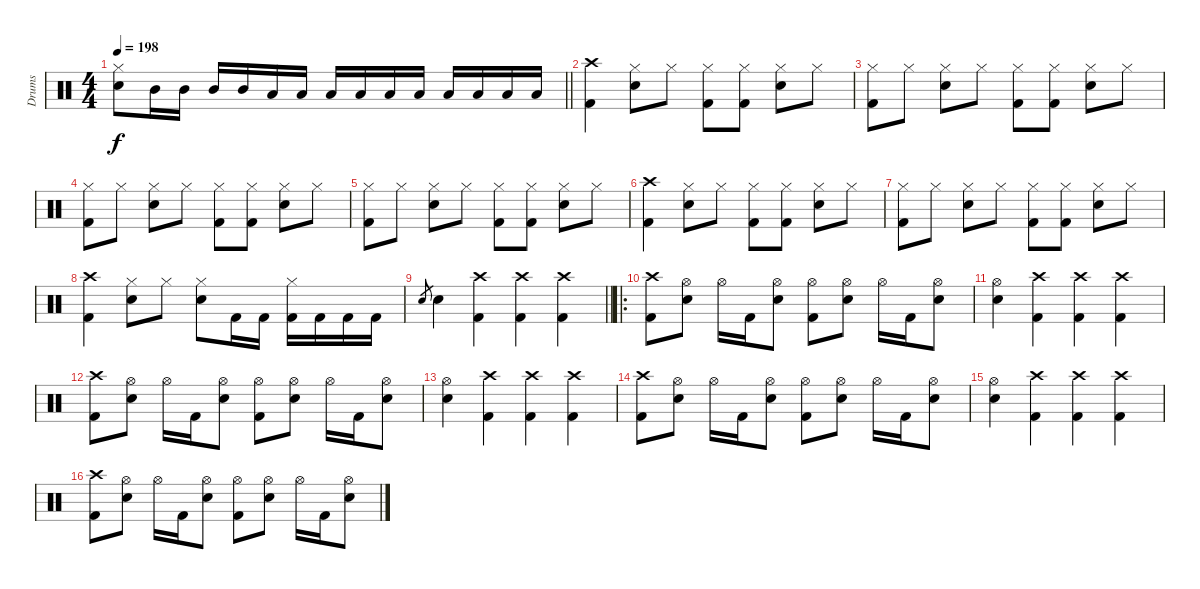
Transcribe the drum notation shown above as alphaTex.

\track ("Drums" "Drums") {instrument percussion}
\staff {score}
\articulation defaults
\ts (4 4)
\tempo 198
\clef neutral
\barLineRight lightlight
\ks c
("Hi-Hat (closed)" "Snare (hit) 2").8{dy f} "Mid Tom (hit)".16 "Mid Tom (hit)".16 "Mid Tom (hit)".16 "Mid Tom (hit)".16 "Low Tom (hit)".16 "Low Tom (hit)".16 "Low Tom (hit)".16 "Low Tom (hit)".16 "Low Tom (hit)".16 "Low Tom (hit)".16 "Low Floor Tom (hit)".16 "Low Floor Tom (hit)".16 "Low Floor Tom (hit)".16 "Low Floor Tom (hit)".16 |
("Crash high (hit)" "Kick (hit) 2").4 ("Hi-Hat (closed)" "Snare (hit) 2").8 "Hi-Hat (closed)".8 ("Hi-Hat (closed)" "Kick (hit) 2").8 ("Hi-Hat (closed)" "Kick (hit) 2").8 ("Hi-Hat (closed)" "Snare (hit) 2").8 "Hi-Hat (closed)".8 |
("Hi-Hat (closed)" "Kick (hit) 2").8 "Hi-Hat (closed)".8 ("Hi-Hat (closed)" "Snare (hit) 2").8 "Hi-Hat (closed)".8 ("Hi-Hat (closed)" "Kick (hit) 2").8 ("Hi-Hat (closed)" "Kick (hit) 2").8 ("Hi-Hat (closed)" "Snare (hit) 2").8 "Hi-Hat (closed)".8 |
("Hi-Hat (closed)" "Kick (hit) 2").8 "Hi-Hat (closed)".8 ("Hi-Hat (closed)" "Snare (hit) 2").8 "Hi-Hat (closed)".8 ("Hi-Hat (closed)" "Kick (hit) 2").8 ("Hi-Hat (closed)" "Kick (hit) 2").8 ("Hi-Hat (closed)" "Snare (hit) 2").8 "Hi-Hat (closed)".8 |
("Hi-Hat (closed)" "Kick (hit) 2").8 "Hi-Hat (closed)".8 ("Hi-Hat (closed)" "Snare (hit) 2").8 "Hi-Hat (closed)".8 ("Hi-Hat (closed)" "Kick (hit) 2").8 ("Hi-Hat (closed)" "Kick (hit) 2").8 ("Hi-Hat (closed)" "Snare (hit) 2").8 "Hi-Hat (closed)".8 |
("Crash high (hit)" "Kick (hit) 2").4 ("Hi-Hat (closed)" "Snare (hit) 2").8 "Hi-Hat (closed)".8 ("Hi-Hat (closed)" "Kick (hit) 2").8 ("Hi-Hat (closed)" "Kick (hit) 2").8 ("Hi-Hat (closed)" "Snare (hit) 2").8 "Hi-Hat (closed)".8 |
("Hi-Hat (closed)" "Kick (hit) 2").8 "Hi-Hat (closed)".8 ("Hi-Hat (closed)" "Snare (hit) 2").8 "Hi-Hat (closed)".8 ("Hi-Hat (closed)" "Kick (hit) 2").8 ("Hi-Hat (closed)" "Kick (hit) 2").8 ("Hi-Hat (closed)" "Snare (hit) 2").8 "Hi-Hat (closed)".8 |
("Crash high (hit)" "Kick (hit) 2").4 ("Hi-Hat (closed)" "Snare (hit) 2").8 "Hi-Hat (closed)".8 ("Hi-Hat (closed)" "Snare (hit) 2").8 "Kick (hit) 2".16 "Kick (hit) 2".16 ("Hi-Hat (closed)" "Kick (hit) 2").16 "Kick (hit) 2".16 "Kick (hit) 2".16 "Kick (hit) 2".16 |
\barLineRight lightlight "Snare (hit) 2".8{gr} "Snare (hit) 2".4
("Crash high (hit)" "Kick (hit) 2").4 ("Crash high (hit)" "Kick (hit) 2").4 ("Crash high (hit)" "Kick (hit) 2").4 |
\ro
("Crash high (hit)" "Kick (hit) 2").8 ("Hi-Hat (open)" "Snare (hit) 2").8 "Hi-Hat (open)".16 "Kick (hit) 2".16 ("Hi-Hat (open)" "Snare (hit) 2").8 ("Hi-Hat (open)" "Kick (hit) 2").8 ("Hi-Hat (open)" "Snare (hit) 2").8 "Hi-Hat (open)".16 "Kick (hit) 2".16 ("Hi-Hat (open)" "Snare (hit) 2").8 |
("Hi-Hat (open)" "Snare (hit) 2").4 ("Crash high (hit)" "Kick (hit) 2").4 ("Crash high (hit)" "Kick (hit) 2").4 ("Crash high (hit)" "Kick (hit) 2").4 |
("Crash high (hit)" "Kick (hit) 2").8 ("Hi-Hat (open)" "Snare (hit) 2").8 "Hi-Hat (open)".16 "Kick (hit) 2".16 ("Hi-Hat (open)" "Snare (hit) 2").8 ("Hi-Hat (open)" "Kick (hit) 2").8 ("Hi-Hat (open)" "Snare (hit) 2").8 "Hi-Hat (open)".16 "Kick (hit) 2".16 ("Hi-Hat (open)" "Snare (hit) 2").8 |
("Hi-Hat (open)" "Snare (hit) 2").4 ("Crash high (hit)" "Kick (hit) 2").4 ("Crash high (hit)" "Kick (hit) 2").4 ("Crash high (hit)" "Kick (hit) 2").4 |
("Crash high (hit)" "Kick (hit) 2").8 ("Hi-Hat (open)" "Snare (hit) 2").8 "Hi-Hat (open)".16 "Kick (hit) 2".16 ("Hi-Hat (open)" "Snare (hit) 2").8 ("Hi-Hat (open)" "Kick (hit) 2").8 ("Hi-Hat (open)" "Snare (hit) 2").8 "Hi-Hat (open)".16 "Kick (hit) 2".16 ("Hi-Hat (open)" "Snare (hit) 2").8 |
("Hi-Hat (open)" "Snare (hit) 2").4 ("Crash high (hit)" "Kick (hit) 2").4 ("Crash high (hit)" "Kick (hit) 2").4 ("Crash high (hit)" "Kick (hit) 2").4 |
("Crash high (hit)" "Kick (hit) 2").8 ("Hi-Hat (open)" "Snare (hit) 2").8 "Hi-Hat (open)".16 "Kick (hit) 2".16 ("Hi-Hat (open)" "Snare (hit) 2").8 ("Hi-Hat (open)" "Kick (hit) 2").8 ("Hi-Hat (open)" "Snare (hit) 2").8 "Hi-Hat (open)".16 "Kick (hit) 2".16 ("Hi-Hat (open)" "Snare (hit) 2").8
